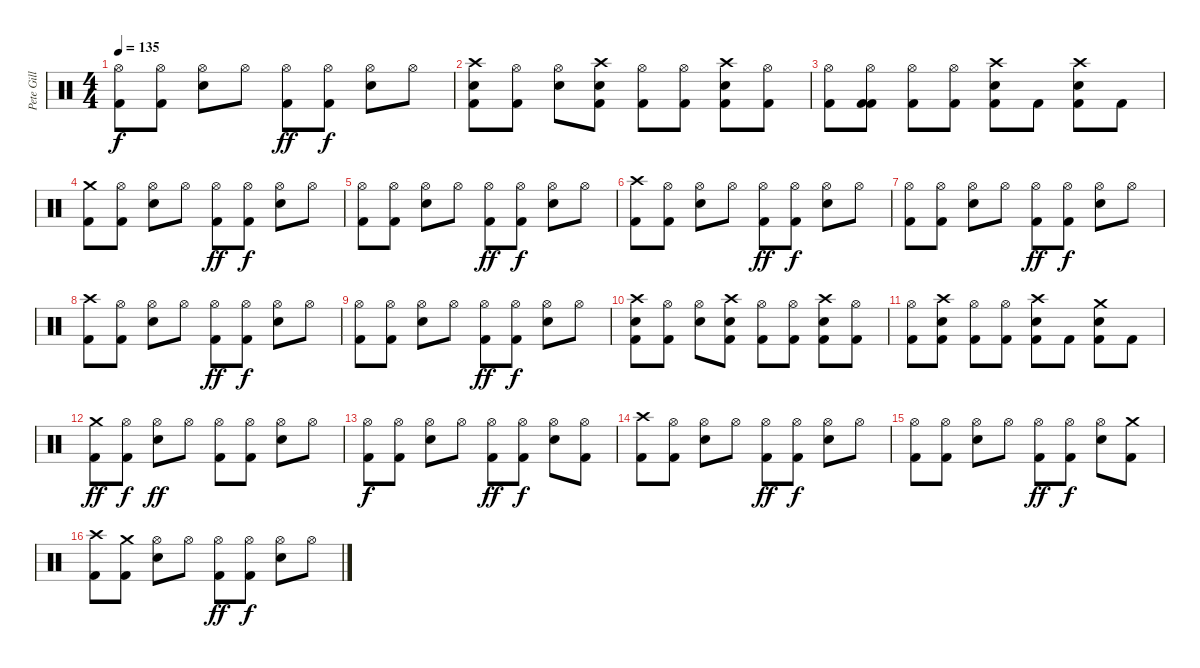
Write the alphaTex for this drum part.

\track ("Pete Gill" "Pete Gill") {instrument percussion}
\staff {score}
\articulation defaults
\ts (4 4)
\tempo 135
\clef neutral
\ks c
("Hi-Hat (open)" "Kick (hit) 2").8{dy f} ("Hi-Hat (open)" "Kick (hit) 2").8 ("Hi-Hat (open)" "Snare (hit) 2").8 "Hi-Hat (open)".8 ("Hi-Hat (open)" "Kick (hit) 2").8{dy ff} ("Hi-Hat (open)" "Kick (hit) 2").8{dy f} ("Hi-Hat (open)" "Snare (hit) 2").8 "Hi-Hat (open)".8 |
("Crash high (hit)" "Snare (hit) 2" "Kick (hit) 2").8 ("Hi-Hat (open)" "Kick (hit) 2").8 ("Hi-Hat (open)" "Snare (hit) 2").8 ("Crash high (hit)" "Snare (hit) 2" "Kick (hit) 2").8 ("Hi-Hat (open)" "Kick (hit) 2").8 ("Hi-Hat (open)" "Kick (hit) 2").8 ("Crash high (hit)" "Snare (hit) 2" "Kick (hit) 2").8 ("Hi-Hat (open)" "Kick (hit) 2").8 |
("Hi-Hat (open)" "Kick (hit) 2").8 ("Hi-Hat (open)" "Kick (hit) 2" "Kick (hit) 2").8 ("Hi-Hat (open)" "Kick (hit) 2").8 ("Hi-Hat (open)" "Kick (hit) 2").8 ("Crash high (hit)" "Snare (hit) 2" "Kick (hit) 2").8 "Kick (hit) 2".8 ("Crash high (hit)" "Snare (hit) 2" "Kick (hit) 2").8 "Kick (hit) 2".8 |
("Crash medium (hit)" "Kick (hit) 2").8 ("Hi-Hat (open)" "Kick (hit) 2").8 ("Hi-Hat (open)" "Snare (hit) 2").8 "Hi-Hat (open)".8 ("Hi-Hat (open)" "Kick (hit) 2").8{dy ff} ("Hi-Hat (open)" "Kick (hit) 2").8{dy f} ("Hi-Hat (open)" "Snare (hit) 2").8 "Hi-Hat (open)".8 |
("Hi-Hat (open)" "Kick (hit) 2").8 ("Hi-Hat (open)" "Kick (hit) 2").8 ("Hi-Hat (open)" "Snare (hit) 2").8 "Hi-Hat (open)".8 ("Hi-Hat (open)" "Kick (hit) 2").8{dy ff} ("Hi-Hat (open)" "Kick (hit) 2").8{dy f} ("Hi-Hat (open)" "Snare (hit) 2").8 "Hi-Hat (open)".8 |
("Crash high (hit)" "Kick (hit) 2").8 ("Hi-Hat (open)" "Kick (hit) 2").8 ("Hi-Hat (open)" "Snare (hit) 2").8 "Hi-Hat (open)".8 ("Hi-Hat (open)" "Kick (hit) 2").8{dy ff} ("Hi-Hat (open)" "Kick (hit) 2").8{dy f} ("Hi-Hat (open)" "Snare (hit) 2").8 "Hi-Hat (open)".8 |
("Hi-Hat (open)" "Kick (hit) 2").8 ("Hi-Hat (open)" "Kick (hit) 2").8 ("Hi-Hat (open)" "Snare (hit) 2").8 "Hi-Hat (open)".8 ("Hi-Hat (open)" "Kick (hit) 2").8{dy ff} ("Hi-Hat (open)" "Kick (hit) 2").8{dy f} ("Hi-Hat (open)" "Snare (hit) 2").8 "Hi-Hat (open)".8 |
("Crash high (hit)" "Kick (hit) 2").8 ("Hi-Hat (open)" "Kick (hit) 2").8 ("Hi-Hat (open)" "Snare (hit) 2").8 "Hi-Hat (open)".8 ("Hi-Hat (open)" "Kick (hit) 2").8{dy ff} ("Hi-Hat (open)" "Kick (hit) 2").8{dy f} ("Hi-Hat (open)" "Snare (hit) 2").8 "Hi-Hat (open)".8 |
("Hi-Hat (open)" "Kick (hit) 2").8 ("Hi-Hat (open)" "Kick (hit) 2").8 ("Hi-Hat (open)" "Snare (hit) 2").8 "Hi-Hat (open)".8 ("Hi-Hat (open)" "Kick (hit) 2").8{dy ff} ("Hi-Hat (open)" "Kick (hit) 2").8{dy f} ("Hi-Hat (open)" "Snare (hit) 2").8 "Hi-Hat (open)".8 |
("Crash high (hit)" "Snare (hit) 2" "Kick (hit) 2").8 ("Hi-Hat (open)" "Kick (hit) 2").8 ("Hi-Hat (open)" "Snare (hit) 2").8 ("Crash high (hit)" "Snare (hit) 2" "Kick (hit) 2").8 ("Hi-Hat (open)" "Kick (hit) 2").8 ("Hi-Hat (open)" "Kick (hit) 2").8 ("Crash high (hit)" "Snare (hit) 2" "Kick (hit) 2").8 ("Hi-Hat (open)" "Kick (hit) 2").8 |
("Hi-Hat (open)" "Kick (hit) 2").8 ("Crash high (hit)" "Snare (hit) 2" "Kick (hit) 2").8 ("Hi-Hat (open)" "Kick (hit) 2").8 ("Hi-Hat (open)" "Kick (hit) 2").8 ("Crash high (hit)" "Snare (hit) 2" "Kick (hit) 2").8 "Kick (hit) 2".8 ("Snare (hit) 2" "Kick (hit) 2" "Crash medium (hit)").8 "Kick (hit) 2".8 |
("Crash medium (hit)" "Kick (hit) 2").8{dy ff} ("Hi-Hat (open)" "Kick (hit) 2").8{dy f} ("Hi-Hat (open)" "Snare (hit) 2").8{dy ff} "Hi-Hat (open)".8 ("Hi-Hat (open)" "Kick (hit) 2").8 ("Hi-Hat (open)" "Kick (hit) 2").8 ("Hi-Hat (open)" "Snare (hit) 2").8 "Hi-Hat (open)".8 |
("Hi-Hat (open)" "Kick (hit) 2").8{dy f} ("Hi-Hat (open)" "Kick (hit) 2").8 ("Hi-Hat (open)" "Snare (hit) 2").8 "Hi-Hat (open)".8 ("Hi-Hat (open)" "Kick (hit) 2").8{dy ff} ("Hi-Hat (open)" "Kick (hit) 2").8{dy f} ("Hi-Hat (open)" "Snare (hit) 2").8 ("Hi-Hat (open)" "Kick (hit) 2").8 |
("Crash high (hit)" "Kick (hit) 2").8 ("Hi-Hat (open)" "Kick (hit) 2").8 ("Hi-Hat (open)" "Snare (hit) 2").8 "Hi-Hat (open)".8 ("Hi-Hat (open)" "Kick (hit) 2").8{dy ff} ("Hi-Hat (open)" "Kick (hit) 2").8{dy f} ("Hi-Hat (open)" "Snare (hit) 2").8 "Hi-Hat (open)".8 |
("Hi-Hat (open)" "Kick (hit) 2").8 ("Hi-Hat (open)" "Kick (hit) 2").8 ("Hi-Hat (open)" "Snare (hit) 2").8 "Hi-Hat (open)".8 ("Hi-Hat (open)" "Kick (hit) 2").8{dy ff} ("Hi-Hat (open)" "Kick (hit) 2").8{dy f} ("Hi-Hat (open)" "Snare (hit) 2").8 ("Kick (hit) 2" "Crash medium (hit)").8 |
("Crash high (hit)" "Kick (hit) 2").8 ("Crash medium (hit)" "Kick (hit) 2").8 ("Hi-Hat (open)" "Snare (hit) 2").8 "Hi-Hat (open)".8 ("Hi-Hat (open)" "Kick (hit) 2").8{dy ff} ("Hi-Hat (open)" "Kick (hit) 2").8{dy f} ("Hi-Hat (open)" "Snare (hit) 2").8 "Hi-Hat (open)".8
